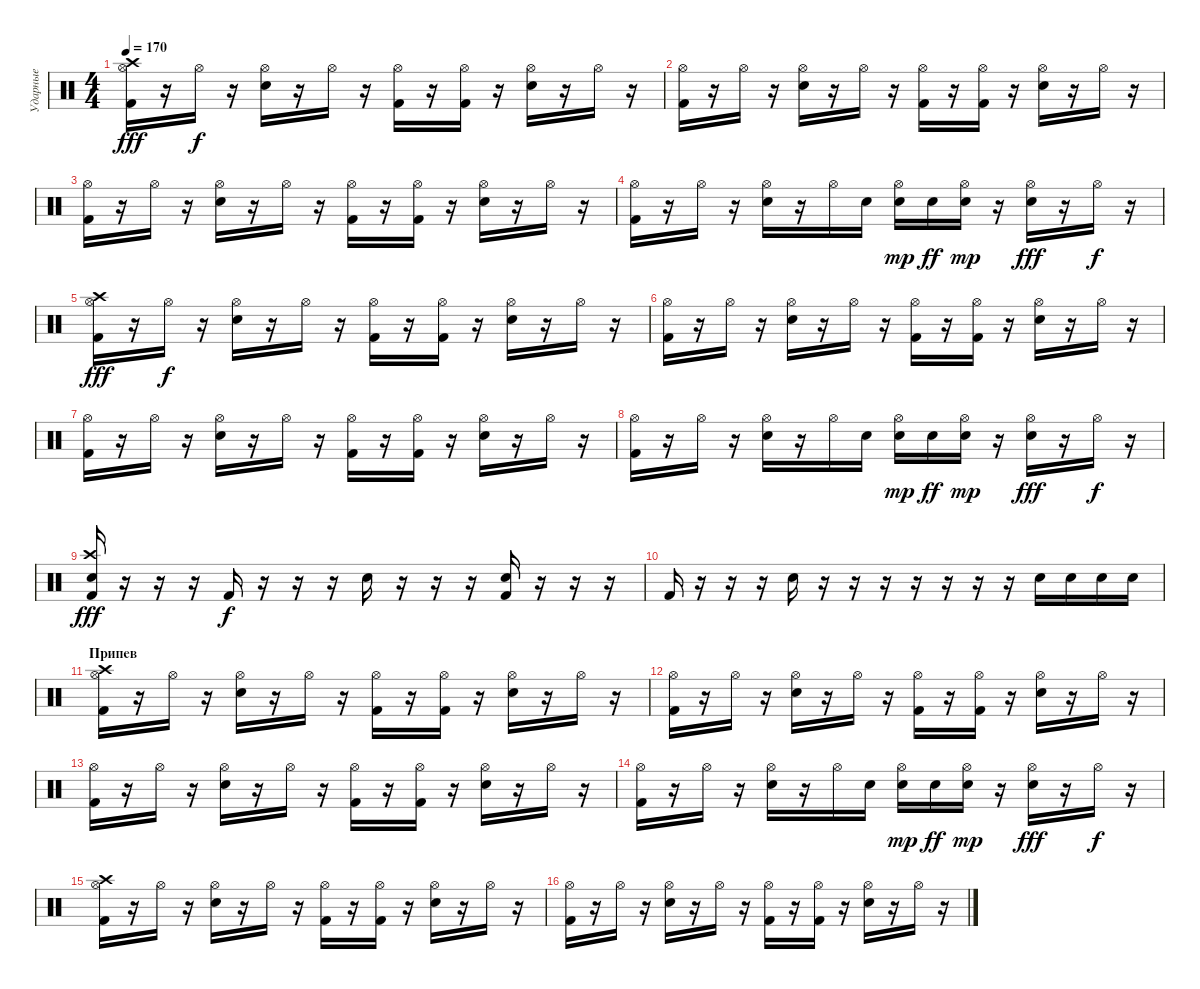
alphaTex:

\track ("Ударные" "Ударные") {instrument percussion}
\staff {score}
\articulation defaults
\ts (4 4)
\tempo 170
\clef neutral
\ks c
("Kick (hit) 2" "Crash high (hit)" "Hi-Hat (open)").16{dy fff} r.16 "Hi-Hat (open)".16{dy f} r.16 ("Snare (hit) 2" "Hi-Hat (open)").16 r.16 "Hi-Hat (open)".16 r.16 ("Kick (hit) 2" "Hi-Hat (open)").16 r.16 ("Kick (hit) 2" "Hi-Hat (open)").16 r.16 ("Snare (hit) 2" "Hi-Hat (open)").16 r.16 "Hi-Hat (open)".16 r.16 |
("Kick (hit) 2" "Hi-Hat (open)").16 r.16 "Hi-Hat (open)".16 r.16 ("Snare (hit) 2" "Hi-Hat (open)").16 r.16 "Hi-Hat (open)".16 r.16 ("Kick (hit) 2" "Hi-Hat (open)").16 r.16 ("Kick (hit) 2" "Hi-Hat (open)").16 r.16 ("Snare (hit) 2" "Hi-Hat (open)").16 r.16 "Hi-Hat (open)".16 r.16 |
("Kick (hit) 2" "Hi-Hat (open)").16 r.16 "Hi-Hat (open)".16 r.16 ("Snare (hit) 2" "Hi-Hat (open)").16 r.16 "Hi-Hat (open)".16 r.16 ("Kick (hit) 2" "Hi-Hat (open)").16 r.16 ("Kick (hit) 2" "Hi-Hat (open)").16 r.16 ("Snare (hit) 2" "Hi-Hat (open)").16 r.16 "Hi-Hat (open)".16 r.16 |
("Kick (hit) 2" "Hi-Hat (open)").16 r.16 "Hi-Hat (open)".16 r.16 ("Snare (hit) 2" "Hi-Hat (open)").16 r.16 "Hi-Hat (open)".16 "Snare (hit) 2".16 ("Snare (hit) 2" "Hi-Hat (open)").16{dy mp} "Snare (hit) 2".16{dy ff} ("Snare (hit) 2" "Hi-Hat (open)").16{dy mp} r.16 ("Snare (hit) 2" "Hi-Hat (open)").16{dy fff} r.16 "Hi-Hat (open)".16{dy f} r.16 |
("Kick (hit) 2" "Crash high (hit)" "Hi-Hat (open)").16{dy fff} r.16 "Hi-Hat (open)".16{dy f} r.16 ("Snare (hit) 2" "Hi-Hat (open)").16 r.16 "Hi-Hat (open)".16 r.16 ("Kick (hit) 2" "Hi-Hat (open)").16 r.16 ("Kick (hit) 2" "Hi-Hat (open)").16 r.16 ("Snare (hit) 2" "Hi-Hat (open)").16 r.16 "Hi-Hat (open)".16 r.16 |
("Kick (hit) 2" "Hi-Hat (open)").16 r.16 "Hi-Hat (open)".16 r.16 ("Snare (hit) 2" "Hi-Hat (open)").16 r.16 "Hi-Hat (open)".16 r.16 ("Kick (hit) 2" "Hi-Hat (open)").16 r.16 ("Kick (hit) 2" "Hi-Hat (open)").16 r.16 ("Snare (hit) 2" "Hi-Hat (open)").16 r.16 "Hi-Hat (open)".16 r.16 |
("Kick (hit) 2" "Hi-Hat (open)").16 r.16 "Hi-Hat (open)".16 r.16 ("Snare (hit) 2" "Hi-Hat (open)").16 r.16 "Hi-Hat (open)".16 r.16 ("Kick (hit) 2" "Hi-Hat (open)").16 r.16 ("Kick (hit) 2" "Hi-Hat (open)").16 r.16 ("Snare (hit) 2" "Hi-Hat (open)").16 r.16 "Hi-Hat (open)".16 r.16 |
("Kick (hit) 2" "Hi-Hat (open)").16 r.16 "Hi-Hat (open)".16 r.16 ("Snare (hit) 2" "Hi-Hat (open)").16 r.16 "Hi-Hat (open)".16 "Snare (hit) 2".16 ("Snare (hit) 2" "Hi-Hat (open)").16{dy mp} "Snare (hit) 2".16{dy ff} ("Snare (hit) 2" "Hi-Hat (open)").16{dy mp} r.16 ("Snare (hit) 2" "Hi-Hat (open)").16{dy fff} r.16 "Hi-Hat (open)".16{dy f} r.16 |
("Snare (hit) 2" "Kick (hit) 2" "Crash high (hit)").16{dy fff} r.16 r.16 r.16 "Kick (hit) 2".16{dy f} r.16 r.16 r.16 "Snare (hit) 2".16 r.16 r.16 r.16 ("Kick (hit) 2" "Snare (hit)"{x}).16 r.16 r.16 r.16 |
"Kick (hit) 2".16 r.16 r.16 r.16 "Snare (hit) 2".16 r.16 r.16 r.16 r.16 r.16 r.16 r.16 "Snare (hit) 2".16 "Snare (hit) 2".16 "Snare (hit) 2".16 "Snare (hit) 2".16 |
\section ("" "Припев")
("Kick (hit) 2" "Crash high (hit)" "Hi-Hat (open)").16 r.16 "Hi-Hat (open)".16 r.16 ("Snare (hit) 2" "Hi-Hat (open)").16 r.16 "Hi-Hat (open)".16 r.16 ("Kick (hit) 2" "Hi-Hat (open)").16 r.16 ("Kick (hit) 2" "Hi-Hat (open)").16 r.16 ("Snare (hit) 2" "Hi-Hat (open)").16 r.16 "Hi-Hat (open)".16 r.16 |
("Kick (hit) 2" "Hi-Hat (open)").16 r.16 "Hi-Hat (open)".16 r.16 ("Snare (hit) 2" "Hi-Hat (open)").16 r.16 "Hi-Hat (open)".16 r.16 ("Kick (hit) 2" "Hi-Hat (open)").16 r.16 ("Kick (hit) 2" "Hi-Hat (open)").16 r.16 ("Snare (hit) 2" "Hi-Hat (open)").16 r.16 "Hi-Hat (open)".16 r.16 |
("Kick (hit) 2" "Hi-Hat (open)").16 r.16 "Hi-Hat (open)".16 r.16 ("Snare (hit) 2" "Hi-Hat (open)").16 r.16 "Hi-Hat (open)".16 r.16 ("Kick (hit) 2" "Hi-Hat (open)").16 r.16 ("Kick (hit) 2" "Hi-Hat (open)").16 r.16 ("Snare (hit) 2" "Hi-Hat (open)").16 r.16 "Hi-Hat (open)".16 r.16 |
("Kick (hit) 2" "Hi-Hat (open)").16 r.16 "Hi-Hat (open)".16 r.16 ("Snare (hit) 2" "Hi-Hat (open)").16 r.16 "Hi-Hat (open)".16 "Snare (hit) 2".16 ("Snare (hit) 2" "Hi-Hat (open)").16{dy mp} "Snare (hit) 2".16{dy ff} ("Snare (hit) 2" "Hi-Hat (open)").16{dy mp} r.16 ("Snare (hit) 2" "Hi-Hat (open)").16{dy fff} r.16 "Hi-Hat (open)".16{dy f} r.16 |
("Kick (hit) 2" "Crash high (hit)" "Hi-Hat (open)").16 r.16 "Hi-Hat (open)".16 r.16 ("Snare (hit) 2" "Hi-Hat (open)").16 r.16 "Hi-Hat (open)".16 r.16 ("Kick (hit) 2" "Hi-Hat (open)").16 r.16 ("Kick (hit) 2" "Hi-Hat (open)").16 r.16 ("Snare (hit) 2" "Hi-Hat (open)").16 r.16 "Hi-Hat (open)".16 r.16 |
("Kick (hit) 2" "Hi-Hat (open)").16 r.16 "Hi-Hat (open)".16 r.16 ("Snare (hit) 2" "Hi-Hat (open)").16 r.16 "Hi-Hat (open)".16 r.16 ("Kick (hit) 2" "Hi-Hat (open)").16 r.16 ("Kick (hit) 2" "Hi-Hat (open)").16 r.16 ("Snare (hit) 2" "Hi-Hat (open)").16 r.16 "Hi-Hat (open)".16 r.16
